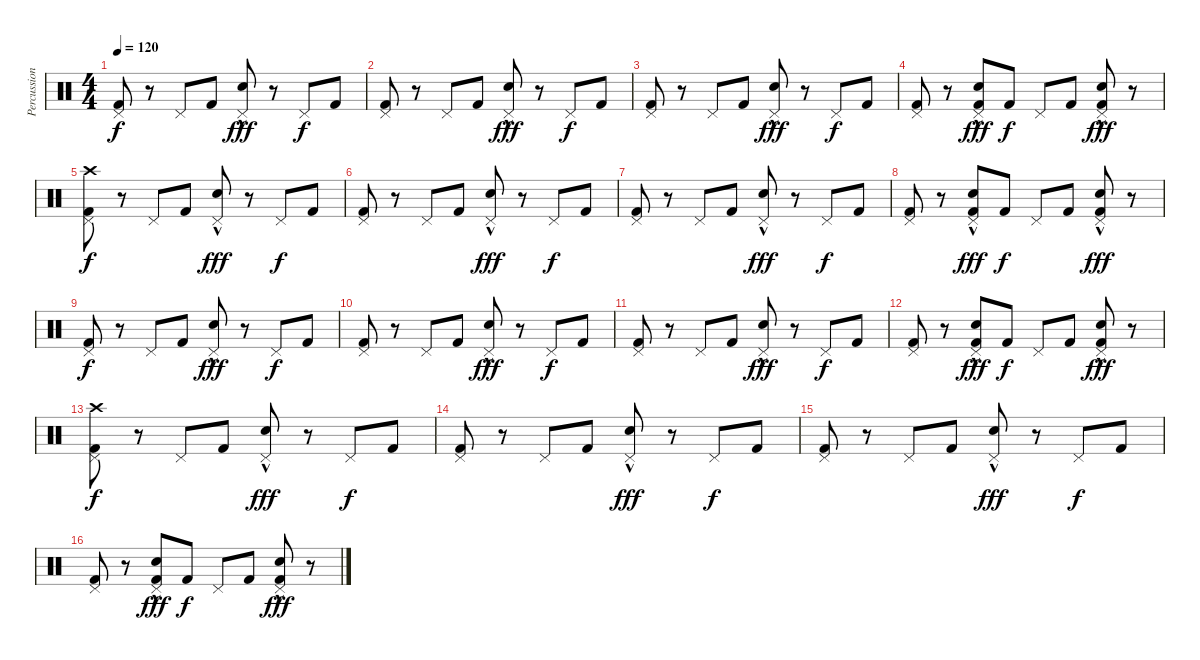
\track ("Percussion" "Percussion") {instrument percussion}
\staff {score}
\articulation defaults
\ts (4 4)
\tempo 120
\clef neutral
\ks c
("Kick (hit) 2" "Pedal Hi-Hat (hit)").8{dy f} r.8 "Pedal Hi-Hat (hit)".8 "Kick (hit) 2".8 ("Snare (hit) 2"{hac} "Pedal Hi-Hat (hit)").8{dy fff} r.8 "Pedal Hi-Hat (hit)".8{dy f} "Kick (hit) 2".8 |
("Kick (hit) 2" "Pedal Hi-Hat (hit)").8 r.8 "Pedal Hi-Hat (hit)".8 "Kick (hit) 2".8 ("Snare (hit) 2"{hac} "Pedal Hi-Hat (hit)").8{dy fff} r.8 "Pedal Hi-Hat (hit)".8{dy f} "Kick (hit) 2".8 |
("Kick (hit) 2" "Pedal Hi-Hat (hit)").8 r.8 "Pedal Hi-Hat (hit)".8 "Kick (hit) 2".8 ("Snare (hit) 2"{hac} "Pedal Hi-Hat (hit)").8{dy fff} r.8 "Pedal Hi-Hat (hit)".8{dy f} "Kick (hit) 2".8 |
("Kick (hit) 2" "Pedal Hi-Hat (hit)").8 r.8 ("Kick (hit) 2" "Snare (hit) 2"{hac} "Pedal Hi-Hat (hit)").8{dy fff} "Kick (hit) 2".8{dy f} "Pedal Hi-Hat (hit)".8 "Kick (hit) 2".8 ("Kick (hit) 2" "Snare (hit) 2"{hac} "Pedal Hi-Hat (hit)").8{dy fff} r.8 |
("Kick (hit) 2" "Pedal Hi-Hat (hit)" "Crash high (hit)").8{dy f} r.8 "Pedal Hi-Hat (hit)".8 "Kick (hit) 2".8 ("Snare (hit) 2"{hac} "Pedal Hi-Hat (hit)").8{dy fff} r.8 "Pedal Hi-Hat (hit)".8{dy f} "Kick (hit) 2".8 |
("Kick (hit) 2" "Pedal Hi-Hat (hit)").8 r.8 "Pedal Hi-Hat (hit)".8 "Kick (hit) 2".8 ("Snare (hit) 2"{hac} "Pedal Hi-Hat (hit)").8{dy fff} r.8 "Pedal Hi-Hat (hit)".8{dy f} "Kick (hit) 2".8 |
("Kick (hit) 2" "Pedal Hi-Hat (hit)").8 r.8 "Pedal Hi-Hat (hit)".8 "Kick (hit) 2".8 ("Snare (hit) 2"{hac} "Pedal Hi-Hat (hit)").8{dy fff} r.8 "Pedal Hi-Hat (hit)".8{dy f} "Kick (hit) 2".8 |
("Kick (hit) 2" "Pedal Hi-Hat (hit)").8 r.8 ("Kick (hit) 2" "Snare (hit) 2"{hac} "Pedal Hi-Hat (hit)").8{dy fff} "Kick (hit) 2".8{dy f} "Pedal Hi-Hat (hit)".8 "Kick (hit) 2".8 ("Kick (hit) 2" "Snare (hit) 2"{hac} "Pedal Hi-Hat (hit)").8{dy fff} r.8 |
("Kick (hit) 2" "Pedal Hi-Hat (hit)").8{dy f} r.8 "Pedal Hi-Hat (hit)".8 "Kick (hit) 2".8 ("Snare (hit) 2"{hac} "Pedal Hi-Hat (hit)").8{dy fff} r.8 "Pedal Hi-Hat (hit)".8{dy f} "Kick (hit) 2".8 |
("Kick (hit) 2" "Pedal Hi-Hat (hit)").8 r.8 "Pedal Hi-Hat (hit)".8 "Kick (hit) 2".8 ("Snare (hit) 2"{hac} "Pedal Hi-Hat (hit)").8{dy fff} r.8 "Pedal Hi-Hat (hit)".8{dy f} "Kick (hit) 2".8 |
("Kick (hit) 2" "Pedal Hi-Hat (hit)").8 r.8 "Pedal Hi-Hat (hit)".8 "Kick (hit) 2".8 ("Snare (hit) 2"{hac} "Pedal Hi-Hat (hit)").8{dy fff} r.8 "Pedal Hi-Hat (hit)".8{dy f} "Kick (hit) 2".8 |
("Kick (hit) 2" "Pedal Hi-Hat (hit)").8 r.8 ("Kick (hit) 2" "Snare (hit) 2"{hac} "Pedal Hi-Hat (hit)").8{dy fff} "Kick (hit) 2".8{dy f} "Pedal Hi-Hat (hit)".8 "Kick (hit) 2".8 ("Kick (hit) 2" "Snare (hit) 2"{hac} "Pedal Hi-Hat (hit)").8{dy fff} r.8 |
("Kick (hit) 2" "Pedal Hi-Hat (hit)" "Crash high (hit)").8{dy f} r.8 "Pedal Hi-Hat (hit)".8 "Kick (hit) 2".8 ("Snare (hit) 2"{hac} "Pedal Hi-Hat (hit)").8{dy fff} r.8 "Pedal Hi-Hat (hit)".8{dy f} "Kick (hit) 2".8 |
("Kick (hit) 2" "Pedal Hi-Hat (hit)").8 r.8 "Pedal Hi-Hat (hit)".8 "Kick (hit) 2".8 ("Snare (hit) 2"{hac} "Pedal Hi-Hat (hit)").8{dy fff} r.8 "Pedal Hi-Hat (hit)".8{dy f} "Kick (hit) 2".8 |
("Kick (hit) 2" "Pedal Hi-Hat (hit)").8 r.8 "Pedal Hi-Hat (hit)".8 "Kick (hit) 2".8 ("Snare (hit) 2"{hac} "Pedal Hi-Hat (hit)").8{dy fff} r.8 "Pedal Hi-Hat (hit)".8{dy f} "Kick (hit) 2".8 |
("Kick (hit) 2" "Pedal Hi-Hat (hit)").8 r.8 ("Kick (hit) 2" "Snare (hit) 2"{hac} "Pedal Hi-Hat (hit)").8{dy fff} "Kick (hit) 2".8{dy f} "Pedal Hi-Hat (hit)".8 "Kick (hit) 2".8 ("Kick (hit) 2" "Snare (hit) 2"{hac} "Pedal Hi-Hat (hit)").8{dy fff} r.8
